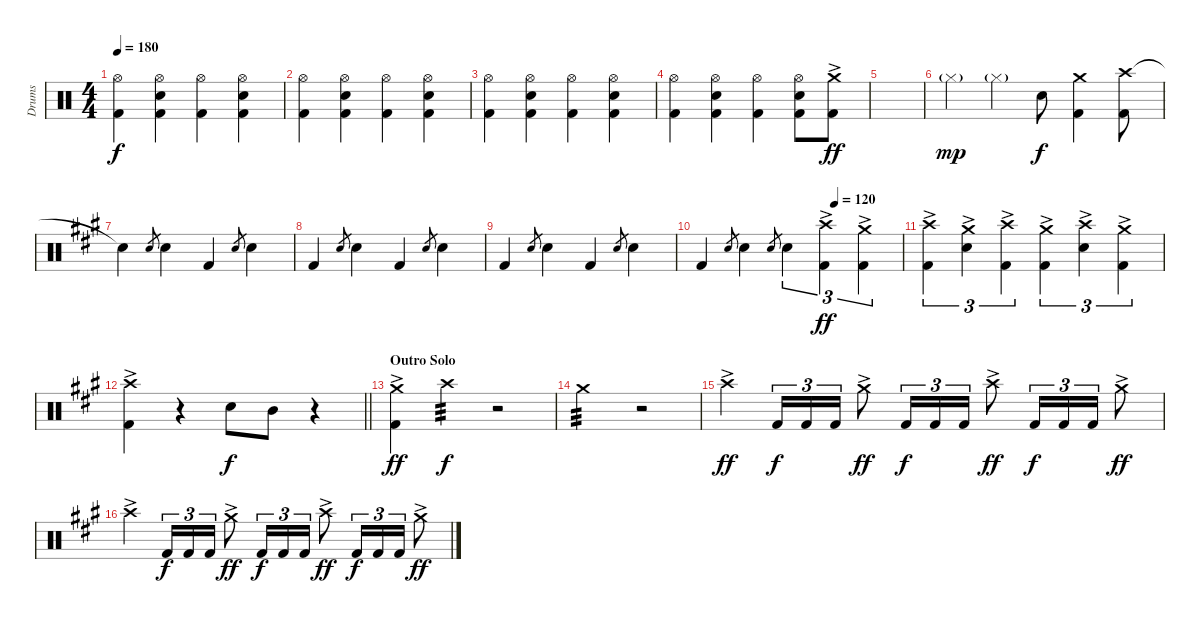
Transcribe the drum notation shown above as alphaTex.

\track ("Drums" "Drums") {instrument percussion}
\staff {score}
\articulation defaults
\ts (4 4)
\tempo 180
\clef neutral
\ks c
("Hi-Hat (open)" "Kick (hit) 2").4{dy f} ("Hi-Hat (open)" "Electric Snare (hit)" "Kick (hit) 2").4 ("Hi-Hat (open)" "Kick (hit) 2").4 ("Hi-Hat (open)" "Electric Snare (hit)" "Kick (hit) 2").4 |
("Hi-Hat (open)" "Kick (hit) 2").4 ("Hi-Hat (open)" "Electric Snare (hit)" "Kick (hit) 2").4 ("Hi-Hat (open)" "Kick (hit) 2").4 ("Hi-Hat (open)" "Electric Snare (hit)" "Kick (hit) 2").4 |
("Hi-Hat (open)" "Kick (hit) 2").4 ("Hi-Hat (open)" "Electric Snare (hit)" "Kick (hit) 2").4 ("Hi-Hat (open)" "Kick (hit) 2").4 ("Hi-Hat (open)" "Electric Snare (hit)" "Kick (hit) 2").4 |
("Hi-Hat (open)" "Kick (hit) 2").4 ("Hi-Hat (open)" "Electric Snare (hit)" "Kick (hit) 2").4 ("Hi-Hat (open)" "Kick (hit) 2").4 ("Hi-Hat (open)" "Electric Snare (hit)" "Kick (hit) 2").8 ("Crash medium (hit)"{ac} "Kick (hit) 2").8{dy ff} |
|
"Hi-Hat (closed)"{g}.4{dy mp} "Hi-Hat (closed)"{g}.4 "Electric Snare (hit)".8{dy f} ("Crash medium (hit)" "Kick (hit) 2").4 ("Crash high (hit)" "Kick (hit) 2").8 |
\ks a "Snare (hit)"{t}.4 "Electric Snare (hit)".8{gr} "Electric Snare (hit)".4 "Kick (hit) 2".4 "Electric Snare (hit)".8{gr} "Electric Snare (hit)".4
|
"Kick (hit) 2".4 "Electric Snare (hit)".8{gr} "Electric Snare (hit)".4 "Kick (hit) 2".4 "Electric Snare (hit)".8{gr} "Electric Snare (hit)".4 |
"Kick (hit) 2".4 "Electric Snare (hit)".8{gr} "Electric Snare (hit)".4 "Kick (hit) 2".4 "Electric Snare (hit)".8{gr} "Electric Snare (hit)".4 |
\tempo (120 0.6666666666666666)
"Kick (hit) 2".4 "Electric Snare (hit)".8{gr} "Electric Snare (hit)".4 "Electric Snare (hit)".8{gr} "Electric Snare (hit)".4{tu (3 2)} ("Crash high (hit)"{ac} "Kick (hit) 2").4{tu (3 2) dy ff} ("Crash medium (hit)"{ac} "Kick (hit) 2").4{tu (3 2)} |
("Crash high (hit)"{ac} "Kick (hit) 2").4{tu (3 2)} ("Crash medium (hit)"{ac} "Electric Snare (hit)").4{tu (3 2)} ("Crash high (hit)"{ac} "Kick (hit) 2").4{tu (3 2)} ("Crash medium (hit)"{ac} "Kick (hit) 2").4{tu (3 2)} ("Crash high (hit)"{ac} "Electric Snare (hit)").4{tu (3 2)} ("Crash medium (hit)"{ac} "Kick (hit) 2").4{tu (3 2)} |
\barLineRight lightlight
("Crash high (hit)"{ac} "Kick (hit) 2").4 r.4 "Electric Snare (hit)".8{dy f} "Mid Tom (hit)".8 r.4 |
\section ("" "Outro Solo")
("Crash medium (hit)"{ac} "Kick (hit) 2").4{dy ff} "Crash high (hit)".4{tp 3 dy f} r.2 |
"Crash medium (hit)".2{tp 3} r.2 |
"Crash high (hit)"{ac}.4{dy ff} "Kick (hit) 2".16{tu (3 2) dy f} "Kick (hit) 2".16{tu (3 2)} "Kick (hit) 2".16{tu (3 2)} "Crash medium (hit)"{ac}.8{dy ff} "Kick (hit) 2".16{tu (3 2) dy f} "Kick (hit) 2".16{tu (3 2)} "Kick (hit) 2".16{tu (3 2)} "Crash high (hit)"{ac}.8{dy ff} "Kick (hit) 2".16{tu (3 2) dy f} "Kick (hit) 2".16{tu (3 2)} "Kick (hit) 2".16{tu (3 2)} "Crash medium (hit)"{ac}.8{dy ff} |
"Crash high (hit)"{ac}.4 "Kick (hit) 2".16{tu (3 2) dy f} "Kick (hit) 2".16{tu (3 2)} "Kick (hit) 2".16{tu (3 2)} "Crash medium (hit)"{ac}.8{dy ff} "Kick (hit) 2".16{tu (3 2) dy f} "Kick (hit) 2".16{tu (3 2)} "Kick (hit) 2".16{tu (3 2)} "Crash high (hit)"{ac}.8{dy ff} "Kick (hit) 2".16{tu (3 2) dy f} "Kick (hit) 2".16{tu (3 2)} "Kick (hit) 2".16{tu (3 2)} "Crash medium (hit)"{ac}.8{dy ff}
